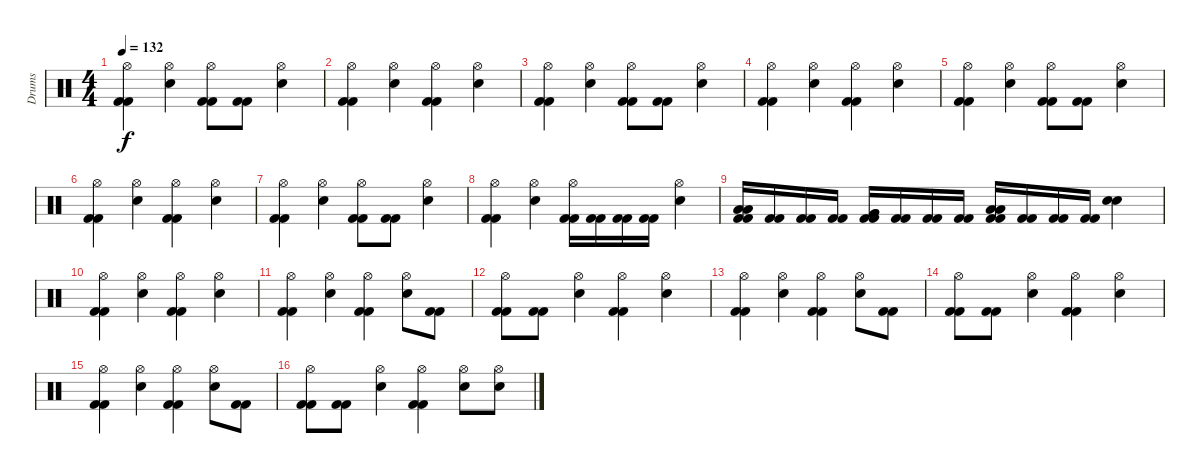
\track ("Drums" "Drums") {instrument percussion}
\staff {score}
\articulation defaults
\ts (4 4)
\tempo 132
\clef neutral
\ks c
("Hi-Hat (open)" "Kick (hit) 2" "Kick (hit) 2").4{dy f} ("Hi-Hat (open)" "Snare (hit) 2").4 ("Hi-Hat (open)" "Kick (hit) 2" "Kick (hit) 2").8 ("Kick (hit) 2" "Kick (hit) 2").8 ("Hi-Hat (open)" "Snare (hit) 2").4 |
("Hi-Hat (open)" "Kick (hit) 2" "Kick (hit) 2").4 ("Hi-Hat (open)" "Snare (hit) 2").4 ("Hi-Hat (open)" "Kick (hit) 2" "Kick (hit) 2").4 ("Hi-Hat (open)" "Snare (hit) 2").4 |
("Hi-Hat (open)" "Kick (hit) 2" "Kick (hit) 2").4 ("Hi-Hat (open)" "Snare (hit) 2").4 ("Hi-Hat (open)" "Kick (hit) 2" "Kick (hit) 2").8 ("Kick (hit) 2" "Kick (hit) 2").8 ("Hi-Hat (open)" "Snare (hit) 2").4 |
("Hi-Hat (open)" "Kick (hit) 2" "Kick (hit) 2").4 ("Hi-Hat (open)" "Snare (hit) 2").4 ("Hi-Hat (open)" "Kick (hit) 2" "Kick (hit) 2").4 ("Hi-Hat (open)" "Snare (hit) 2").4 |
("Hi-Hat (open)" "Kick (hit) 2" "Kick (hit) 2").4 ("Hi-Hat (open)" "Snare (hit) 2").4 ("Hi-Hat (open)" "Kick (hit) 2" "Kick (hit) 2").8 ("Kick (hit) 2" "Kick (hit) 2").8 ("Hi-Hat (open)" "Snare (hit) 2").4 |
("Hi-Hat (open)" "Kick (hit) 2" "Kick (hit) 2").4 ("Hi-Hat (open)" "Snare (hit) 2").4 ("Hi-Hat (open)" "Kick (hit) 2" "Kick (hit) 2").4 ("Hi-Hat (open)" "Snare (hit) 2").4 |
("Hi-Hat (open)" "Kick (hit) 2" "Kick (hit) 2").4 ("Hi-Hat (open)" "Snare (hit) 2").4 ("Hi-Hat (open)" "Kick (hit) 2" "Kick (hit) 2").8 ("Kick (hit) 2" "Kick (hit) 2").8 ("Hi-Hat (open)" "Snare (hit) 2").4 |
("Hi-Hat (open)" "Kick (hit) 2" "Kick (hit) 2").4 ("Hi-Hat (open)" "Snare (hit) 2").4 ("Hi-Hat (open)" "Kick (hit) 2" "Kick (hit) 2").16 ("Kick (hit) 2" "Kick (hit) 2").16 ("Kick (hit) 2" "Kick (hit) 2").16 ("Kick (hit) 2" "Kick (hit) 2").16 ("Hi-Hat (open)" "Snare (hit) 2").4 |
("Low Tom (hit)" "Low Tom (hit)" "Kick (hit) 2" "Kick (hit) 2").16 ("Kick (hit) 2" "Kick (hit) 2").16 ("Kick (hit) 2" "Kick (hit) 2").16 ("Kick (hit) 2" "Kick (hit) 2").16 ("Very Low Tom (hit)" "Very Low Tom (hit)" "Kick (hit) 2" "Kick (hit) 2").16 ("Kick (hit) 2" "Kick (hit) 2").16 ("Kick (hit) 2" "Kick (hit) 2").16 ("Kick (hit) 2" "Kick (hit) 2").16 ("Low Floor Tom (hit)" "Low Floor Tom (hit)" "Kick (hit) 2" "Kick (hit) 2").16 ("Kick (hit) 2" "Kick (hit) 2").16 ("Kick (hit) 2" "Kick (hit) 2").16 ("Kick (hit) 2" "Kick (hit) 2").16 ("Snare (hit) 2" "Snare (hit) 2").4 |
("Hi-Hat (open)" "Kick (hit) 2" "Kick (hit) 2").4 ("Hi-Hat (open)" "Snare (hit) 2").4 ("Hi-Hat (open)" "Kick (hit) 2" "Kick (hit) 2").4 ("Hi-Hat (open)" "Snare (hit) 2").4 |
("Hi-Hat (open)" "Kick (hit) 2" "Kick (hit) 2").4 ("Hi-Hat (open)" "Snare (hit) 2").4 ("Hi-Hat (open)" "Kick (hit) 2" "Kick (hit) 2").4 ("Hi-Hat (open)" "Snare (hit) 2").8 ("Kick (hit) 2" "Kick (hit) 2").8 |
("Hi-Hat (open)" "Kick (hit) 2" "Kick (hit) 2").8 ("Kick (hit) 2" "Kick (hit) 2").8 ("Hi-Hat (open)" "Snare (hit) 2").4 ("Hi-Hat (open)" "Kick (hit) 2" "Kick (hit) 2").4 ("Hi-Hat (open)" "Snare (hit) 2").4 |
("Hi-Hat (open)" "Kick (hit) 2" "Kick (hit) 2").4 ("Hi-Hat (open)" "Snare (hit) 2").4 ("Hi-Hat (open)" "Kick (hit) 2" "Kick (hit) 2").4 ("Hi-Hat (open)" "Snare (hit) 2").8 ("Kick (hit) 2" "Kick (hit) 2").8 |
("Hi-Hat (open)" "Kick (hit) 2" "Kick (hit) 2").8 ("Kick (hit) 2" "Kick (hit) 2").8 ("Hi-Hat (open)" "Snare (hit) 2").4 ("Hi-Hat (open)" "Kick (hit) 2" "Kick (hit) 2").4 ("Hi-Hat (open)" "Snare (hit) 2").4 |
("Hi-Hat (open)" "Kick (hit) 2" "Kick (hit) 2").4 ("Hi-Hat (open)" "Snare (hit) 2").4 ("Hi-Hat (open)" "Kick (hit) 2" "Kick (hit) 2").4 ("Hi-Hat (open)" "Snare (hit) 2").8 ("Kick (hit) 2" "Kick (hit) 2").8 |
("Hi-Hat (open)" "Kick (hit) 2" "Kick (hit) 2").8 ("Kick (hit) 2" "Kick (hit) 2").8 ("Hi-Hat (open)" "Snare (hit) 2").4 ("Hi-Hat (open)" "Kick (hit) 2" "Kick (hit) 2").4 ("Hi-Hat (open)" "Snare (hit) 2").8 ("Hi-Hat (open)" "Snare (hit) 2").8
